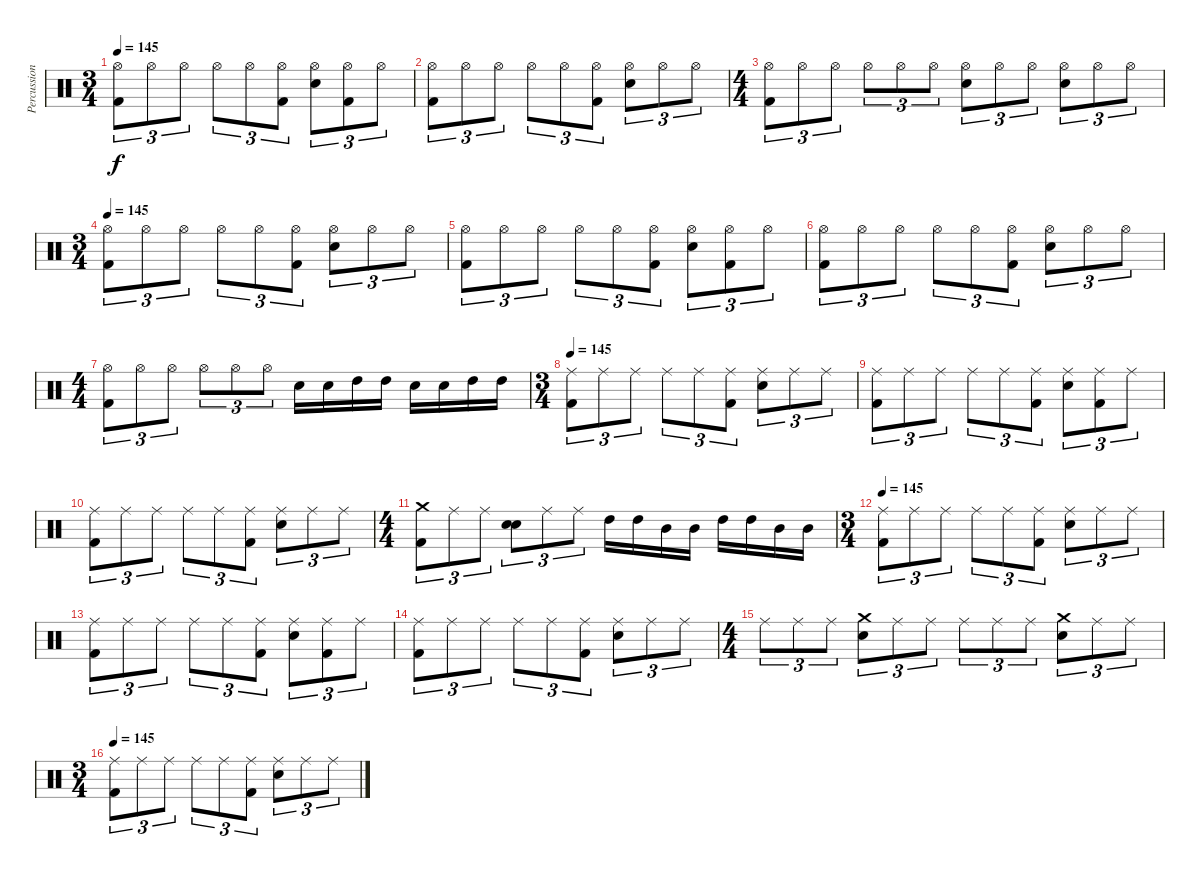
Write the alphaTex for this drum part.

\track ("Percussion" "Percussion") {instrument percussion}
\staff {score}
\articulation defaults
\ts (3 4)
\tempo 145
\clef neutral
\ks c
("Hi-Hat (open)" "Kick (hit) 2").8{tu (3 2) dy f} "Hi-Hat (open)".8{tu (3 2)} "Hi-Hat (open)".8{tu (3 2)} "Hi-Hat (open)".8{tu (3 2)} "Hi-Hat (open)".8{tu (3 2)} ("Hi-Hat (open)" "Kick (hit) 2").8{tu (3 2)} ("Hi-Hat (open)" "Electric Snare (hit)").8{tu (3 2)} ("Hi-Hat (open)" "Kick (hit) 2").8{tu (3 2)} "Hi-Hat (open)".8{tu (3 2)} |
("Hi-Hat (open)" "Kick (hit) 2").8{tu (3 2)} "Hi-Hat (open)".8{tu (3 2)} "Hi-Hat (open)".8{tu (3 2)} "Hi-Hat (open)".8{tu (3 2)} "Hi-Hat (open)".8{tu (3 2)} ("Hi-Hat (open)" "Kick (hit) 2").8{tu (3 2)} ("Hi-Hat (open)" "Electric Snare (hit)").8{tu (3 2)} "Hi-Hat (open)".8{tu (3 2)} "Hi-Hat (open)".8{tu (3 2)} |
\ts (4 4)
("Hi-Hat (open)" "Kick (hit) 2").8{tu (3 2)} "Hi-Hat (open)".8{tu (3 2)} "Hi-Hat (open)".8{tu (3 2)} "Hi-Hat (open)".8{tu (3 2)} "Hi-Hat (open)".8{tu (3 2)} "Hi-Hat (open)".8{tu (3 2)} ("Hi-Hat (open)" "Electric Snare (hit)").8{tu (3 2)} "Hi-Hat (open)".8{tu (3 2)} "Hi-Hat (open)".8{tu (3 2)} ("Hi-Hat (open)" "Electric Snare (hit)").8{tu (3 2)} "Hi-Hat (open)".8{tu (3 2)} "Hi-Hat (open)".8{tu (3 2)} |
\ts (3 4)
\tempo 145
("Hi-Hat (open)" "Kick (hit) 2").8{tu (3 2) volume 9} "Hi-Hat (open)".8{tu (3 2)} "Hi-Hat (open)".8{tu (3 2)} "Hi-Hat (open)".8{tu (3 2)} "Hi-Hat (open)".8{tu (3 2)} ("Hi-Hat (open)" "Kick (hit) 2").8{tu (3 2)} ("Hi-Hat (open)" "Electric Snare (hit)").8{tu (3 2)} "Hi-Hat (open)".8{tu (3 2)} "Hi-Hat (open)".8{tu (3 2)} |
("Hi-Hat (open)" "Kick (hit) 2").8{tu (3 2)} "Hi-Hat (open)".8{tu (3 2)} "Hi-Hat (open)".8{tu (3 2)} "Hi-Hat (open)".8{tu (3 2)} "Hi-Hat (open)".8{tu (3 2)} ("Hi-Hat (open)" "Kick (hit) 2").8{tu (3 2)} ("Hi-Hat (open)" "Electric Snare (hit)").8{tu (3 2)} ("Hi-Hat (open)" "Kick (hit) 2").8{tu (3 2)} "Hi-Hat (open)".8{tu (3 2)} |
("Hi-Hat (open)" "Kick (hit) 2").8{tu (3 2)} "Hi-Hat (open)".8{tu (3 2)} "Hi-Hat (open)".8{tu (3 2)} "Hi-Hat (open)".8{tu (3 2)} "Hi-Hat (open)".8{tu (3 2)} ("Hi-Hat (open)" "Kick (hit) 2").8{tu (3 2)} ("Hi-Hat (open)" "Electric Snare (hit)").8{tu (3 2)} "Hi-Hat (open)".8{tu (3 2)} "Hi-Hat (open)".8{tu (3 2)} |
\ts (4 4)
("Hi-Hat (open)" "Kick (hit) 2").8{tu (3 2)} "Hi-Hat (open)".8{tu (3 2)} "Hi-Hat (open)".8{tu (3 2)} "Hi-Hat (open)".8{tu (3 2)} "Hi-Hat (open)".8{tu (3 2)} "Hi-Hat (open)".8{tu (3 2)} "Electric Snare (hit)".16 "Electric Snare (hit)".16 "High Tom (hit)".16 "High Tom (hit)".16 "Electric Snare (hit)".16 "Electric Snare (hit)".16 "High Tom (hit)".16 "High Tom (hit)".16 |
\ts (3 4)
\tempo 145
("Ride (middle)" "Kick (hit) 2").8{tu (3 2) volume 7} "Ride (middle)".8{tu (3 2)} "Ride (middle)".8{tu (3 2)} "Ride (middle)".8{tu (3 2)} "Ride (middle)".8{tu (3 2)} ("Ride (middle)" "Kick (hit) 2").8{tu (3 2)} ("Ride (middle)" "Electric Snare (hit)").8{tu (3 2)} "Ride (middle)".8{tu (3 2)} "Ride (middle)".8{tu (3 2)} |
("Ride (middle)" "Kick (hit) 2").8{tu (3 2)} "Ride (middle)".8{tu (3 2)} "Ride (middle)".8{tu (3 2)} "Ride (middle)".8{tu (3 2)} "Ride (middle)".8{tu (3 2)} ("Ride (middle)" "Kick (hit) 2").8{tu (3 2)} ("Ride (middle)" "Electric Snare (hit)").8{tu (3 2)} ("Ride (middle)" "Kick (hit) 2").8{tu (3 2)} "Ride (middle)".8{tu (3 2)} |
("Ride (middle)" "Kick (hit) 2").8{tu (3 2)} "Ride (middle)".8{tu (3 2)} "Ride (middle)".8{tu (3 2)} "Ride (middle)".8{tu (3 2)} "Ride (middle)".8{tu (3 2)} ("Ride (middle)" "Kick (hit) 2").8{tu (3 2)} ("Ride (middle)" "Electric Snare (hit)").8{tu (3 2)} "Ride (middle)".8{tu (3 2)} "Ride (middle)".8{tu (3 2)} |
\ts (4 4)
("Crash medium (hit)" "Kick (hit) 2").8{tu (3 2)} "Ride (middle)".8{tu (3 2)} "Ride (middle)".8{tu (3 2)} ("Electric Snare (hit)" "Electric Snare (hit)").8{tu (3 2)} "Ride (middle)".8{tu (3 2)} "Ride (middle)".8{tu (3 2)} "High Tom (hit)".16 "High Tom (hit)".16 "Mid Tom (hit)".16 "Mid Tom (hit)".16 "High Tom (hit)".16 "High Tom (hit)".16 "Mid Tom (hit)".16 "Mid Tom (hit)".16 |
\ts (3 4)
\tempo 145
("Ride (middle)" "Kick (hit) 2").8{tu (3 2) volume 5} "Ride (middle)".8{tu (3 2)} "Ride (middle)".8{tu (3 2)} "Ride (middle)".8{tu (3 2)} "Ride (middle)".8{tu (3 2)} ("Ride (middle)" "Kick (hit) 2").8{tu (3 2)} ("Ride (middle)" "Electric Snare (hit)").8{tu (3 2)} "Ride (middle)".8{tu (3 2)} "Ride (middle)".8{tu (3 2)} |
("Ride (middle)" "Kick (hit) 2").8{tu (3 2)} "Ride (middle)".8{tu (3 2)} "Ride (middle)".8{tu (3 2)} "Ride (middle)".8{tu (3 2)} "Ride (middle)".8{tu (3 2)} ("Ride (middle)" "Kick (hit) 2").8{tu (3 2)} ("Ride (middle)" "Electric Snare (hit)").8{tu (3 2)} ("Ride (middle)" "Kick (hit) 2").8{tu (3 2)} "Ride (middle)".8{tu (3 2)} |
("Ride (middle)" "Kick (hit) 2").8{tu (3 2)} "Ride (middle)".8{tu (3 2)} "Ride (middle)".8{tu (3 2)} "Ride (middle)".8{tu (3 2)} "Ride (middle)".8{tu (3 2)} ("Ride (middle)" "Kick (hit) 2").8{tu (3 2)} ("Ride (middle)" "Electric Snare (hit)").8{tu (3 2)} "Ride (middle)".8{tu (3 2)} "Ride (middle)".8{tu (3 2)} |
\ts (4 4)
"Ride (middle)".8{tu (3 2)} "Ride (middle)".8{tu (3 2)} "Ride (middle)".8{tu (3 2)} ("Electric Snare (hit)" "Crash medium (hit)").8{tu (3 2)} "Ride (middle)".8{tu (3 2)} "Ride (middle)".8{tu (3 2)} "Ride (middle)".8{tu (3 2)} "Ride (middle)".8{tu (3 2)} "Ride (middle)".8{tu (3 2)} ("Electric Snare (hit)" "Crash medium (hit)").8{tu (3 2)} "Ride (middle)".8{tu (3 2)} "Ride (middle)".8{tu (3 2)} |
\ts (3 4)
\tempo 145
("Ride (middle)" "Kick (hit) 2").8{tu (3 2) volume 2} "Ride (middle)".8{tu (3 2)} "Ride (middle)".8{tu (3 2)} "Ride (middle)".8{tu (3 2)} "Ride (middle)".8{tu (3 2)} ("Ride (middle)" "Kick (hit) 2").8{tu (3 2)} ("Ride (middle)" "Electric Snare (hit)").8{tu (3 2)} "Ride (middle)".8{tu (3 2)} "Ride (middle)".8{tu (3 2)}
